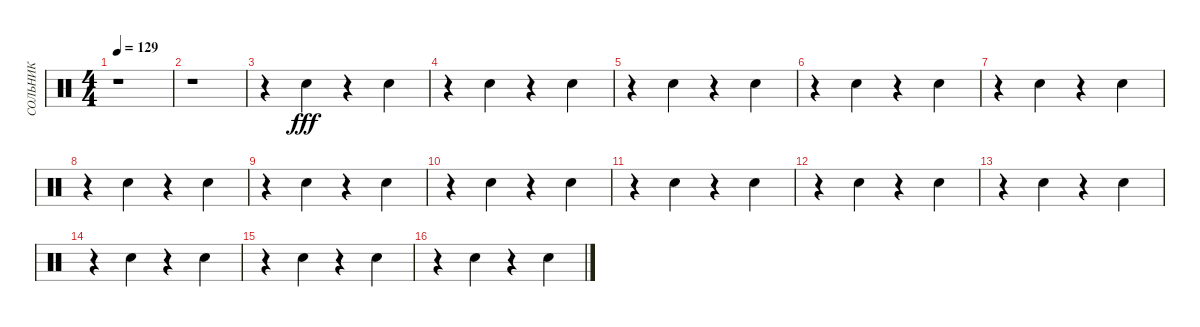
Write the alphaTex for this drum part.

\track ("СОЛЬНИК" "СОЛЬНИК") {instrument percussion}
\staff {score}
\articulation defaults
\ts (4 4)
\tempo 129
\clef neutral
\ks c
r.1{dy fff} |
r.1 |
r.4 "Snare (hit) 2".4 r.4 "Snare (hit) 2".4 |
r.4 "Snare (hit) 2".4 r.4 "Snare (hit) 2".4 |
r.4 "Snare (hit) 2".4 r.4 "Snare (hit) 2".4 |
r.4 "Snare (hit) 2".4 r.4 "Snare (hit) 2".4 |
r.4 "Snare (hit) 2".4 r.4 "Snare (hit) 2".4 |
r.4 "Snare (hit) 2".4 r.4 "Snare (hit) 2".4 |
r.4 "Snare (hit) 2".4 r.4 "Snare (hit) 2".4 |
r.4 "Snare (hit) 2".4 r.4 "Snare (hit) 2".4 |
r.4 "Snare (hit) 2".4 r.4 "Snare (hit) 2".4 |
r.4 "Snare (hit) 2".4 r.4 "Snare (hit) 2".4 |
r.4 "Snare (hit) 2".4 r.4 "Snare (hit) 2".4 |
r.4 "Snare (hit) 2".4 r.4 "Snare (hit) 2".4 |
r.4 "Snare (hit) 2".4 r.4 "Snare (hit) 2".4 |
r.4 "Snare (hit) 2".4 r.4 "Snare (hit) 2".4
